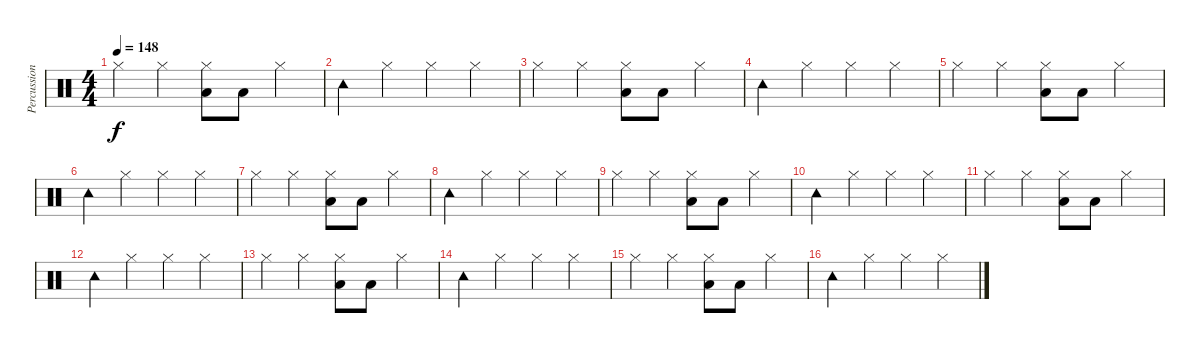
\track ("Percussions" "Percussion") {instrument percussion}
\staff {score}
\articulation defaults
\ts (4 4)
\tempo 148
\clef neutral
\ks c "Hi-Hat (closed)".4{dy f} "Hi-Hat (closed)".4
("Hi-Hat (closed)" "Low Tom (hit)").8 "Low Tom (hit)".8 "Hi-Hat (closed)".4 |
"Tambourine (hit)".4 "Hi-Hat (closed)".4 "Hi-Hat (closed)".4 "Hi-Hat (closed)".4 |
"Hi-Hat (closed)".4 "Hi-Hat (closed)".4 ("Hi-Hat (closed)" "Low Tom (hit)").8 "Low Tom (hit)".8 "Hi-Hat (closed)".4 |
"Tambourine (hit)".4 "Hi-Hat (closed)".4 "Hi-Hat (closed)".4 "Hi-Hat (closed)".4 |
"Hi-Hat (closed)".4 "Hi-Hat (closed)".4 ("Hi-Hat (closed)" "Low Tom (hit)").8 "Low Tom (hit)".8 "Hi-Hat (closed)".4 |
"Tambourine (hit)".4 "Hi-Hat (closed)".4 "Hi-Hat (closed)".4 "Hi-Hat (closed)".4 |
"Hi-Hat (closed)".4 "Hi-Hat (closed)".4 ("Hi-Hat (closed)" "Low Tom (hit)").8 "Low Tom (hit)".8 "Hi-Hat (closed)".4 |
"Tambourine (hit)".4 "Hi-Hat (closed)".4 "Hi-Hat (closed)".4 "Hi-Hat (closed)".4 |
"Hi-Hat (closed)".4 "Hi-Hat (closed)".4 ("Hi-Hat (closed)" "Low Tom (hit)").8 "Low Tom (hit)".8 "Hi-Hat (closed)".4 |
\section ("" "")
"Tambourine (hit)".4 "Hi-Hat (closed)".4 "Hi-Hat (closed)".4 "Hi-Hat (closed)".4 |
"Hi-Hat (closed)".4 "Hi-Hat (closed)".4 ("Hi-Hat (closed)" "Low Tom (hit)").8 "Low Tom (hit)".8 "Hi-Hat (closed)".4 |
"Tambourine (hit)".4 "Hi-Hat (closed)".4 "Hi-Hat (closed)".4 "Hi-Hat (closed)".4 |
"Hi-Hat (closed)".4 "Hi-Hat (closed)".4 ("Hi-Hat (closed)" "Low Tom (hit)").8 "Low Tom (hit)".8 "Hi-Hat (closed)".4 |
"Tambourine (hit)".4 "Hi-Hat (closed)".4 "Hi-Hat (closed)".4 "Hi-Hat (closed)".4 |
"Hi-Hat (closed)".4 "Hi-Hat (closed)".4 ("Hi-Hat (closed)" "Low Tom (hit)").8 "Low Tom (hit)".8 "Hi-Hat (closed)".4 |
"Tambourine (hit)".4 "Hi-Hat (closed)".4 "Hi-Hat (closed)".4 "Hi-Hat (closed)".4
